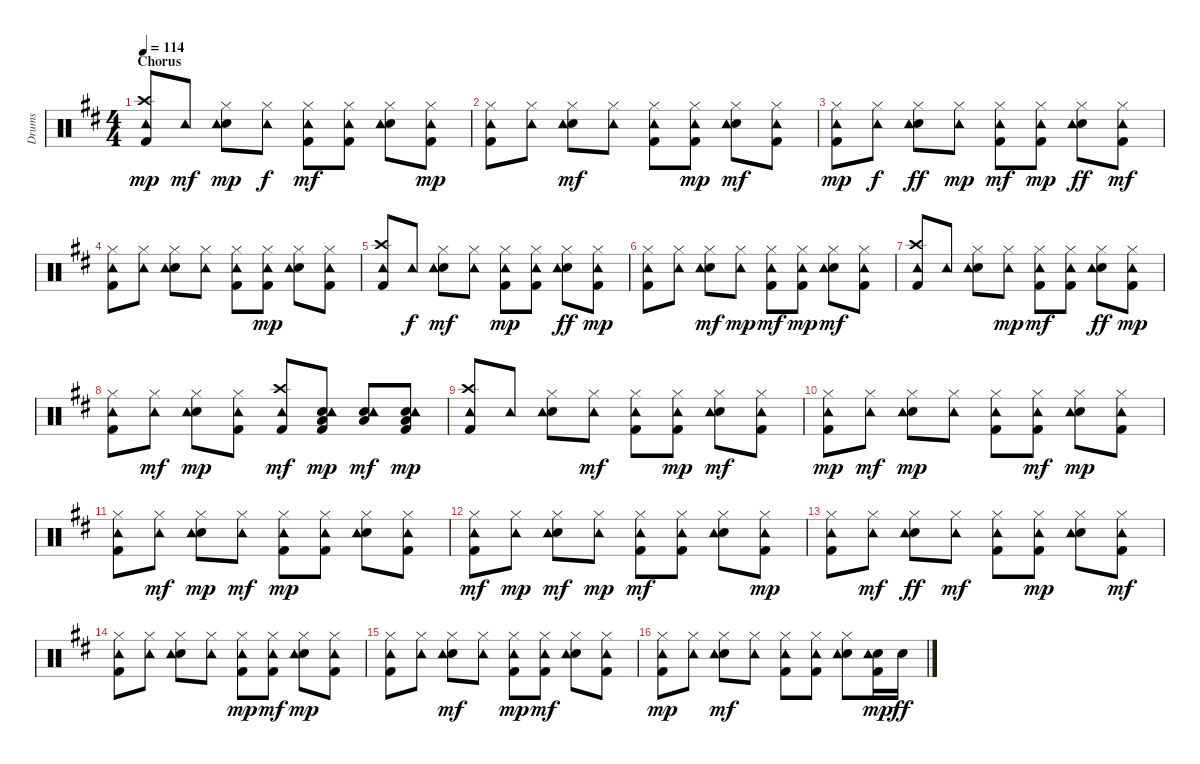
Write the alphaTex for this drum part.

\track ("Drums" "Drums") {instrument percussion}
\staff {score}
\articulation defaults
\ts (4 4)
\section ("" "Chorus")
\tempo 114
\clef neutral
\ks d
("Kick (hit) 2" "Crash high (hit)" "Tambourine (hit)").8{dy mp} "Tambourine (hit)".8{dy mf} ("Snare (hit) 2" "Hi-Hat (closed)" "Tambourine (hit)").8{dy mp} ("Hi-Hat (closed)" "Tambourine (hit)").8{dy f} ("Kick (hit) 2" "Hi-Hat (closed)" "Tambourine (hit)").8{dy mf} ("Kick (hit) 2" "Hi-Hat (closed)" "Tambourine (hit)").8 ("Snare (hit) 2" "Hi-Hat (closed)" "Tambourine (hit)").8 ("Kick (hit) 2" "Hi-Hat (closed)" "Tambourine (hit)").8{dy mp} |
("Kick (hit) 2" "Hi-Hat (closed)" "Tambourine (hit)").8 ("Hi-Hat (closed)" "Tambourine (hit)").8 ("Snare (hit) 2" "Hi-Hat (closed)" "Tambourine (hit)").8{dy mf} ("Hi-Hat (closed)" "Tambourine (hit)").8 ("Kick (hit) 2" "Hi-Hat (closed)" "Tambourine (hit)").8 ("Kick (hit) 2" "Hi-Hat (closed)" "Tambourine (hit)").8{dy mp} ("Snare (hit) 2" "Hi-Hat (closed)" "Tambourine (hit)").8{dy mf} ("Kick (hit) 2" "Hi-Hat (closed)" "Tambourine (hit)").8 |
("Kick (hit) 2" "Hi-Hat (closed)" "Tambourine (hit)").8{dy mp} ("Hi-Hat (closed)" "Tambourine (hit)").8{dy f} ("Snare (hit) 2" "Hi-Hat (closed)" "Tambourine (hit)").8{dy ff} ("Hi-Hat (closed)" "Tambourine (hit)").8{dy mp} ("Kick (hit) 2" "Hi-Hat (closed)" "Tambourine (hit)").8{dy mf} ("Kick (hit) 2" "Hi-Hat (closed)" "Tambourine (hit)").8{dy mp} ("Snare (hit) 2" "Hi-Hat (closed)" "Tambourine (hit)").8{dy ff} ("Kick (hit) 2" "Hi-Hat (closed)" "Tambourine (hit)").8{dy mf} |
("Kick (hit) 2" "Hi-Hat (closed)" "Tambourine (hit)").8 ("Hi-Hat (closed)" "Tambourine (hit)").8 ("Snare (hit) 2" "Hi-Hat (closed)" "Tambourine (hit)").8 ("Hi-Hat (closed)" "Tambourine (hit)").8 ("Kick (hit) 2" "Hi-Hat (closed)" "Tambourine (hit)").8 ("Kick (hit) 2" "Hi-Hat (closed)" "Tambourine (hit)").8{dy mp} ("Snare (hit) 2" "Hi-Hat (closed)" "Tambourine (hit)").8 ("Kick (hit) 2" "Hi-Hat (closed)" "Tambourine (hit)").8 |
("Kick (hit) 2" "Crash high (hit)" "Tambourine (hit)").8 "Tambourine (hit)".8{dy f} ("Snare (hit) 2" "Hi-Hat (closed)" "Tambourine (hit)").8{dy mf} ("Hi-Hat (closed)" "Tambourine (hit)").8 ("Kick (hit) 2" "Hi-Hat (closed)" "Tambourine (hit)").8{dy mp} ("Kick (hit) 2" "Hi-Hat (closed)" "Tambourine (hit)").8 ("Snare (hit) 2" "Hi-Hat (closed)" "Tambourine (hit)").8{dy ff} ("Kick (hit) 2" "Hi-Hat (closed)" "Tambourine (hit)").8{dy mp} |
("Kick (hit) 2" "Hi-Hat (closed)" "Tambourine (hit)").8 ("Hi-Hat (closed)" "Tambourine (hit)").8 ("Snare (hit) 2" "Hi-Hat (closed)" "Tambourine (hit)").8{dy mf} ("Hi-Hat (closed)" "Tambourine (hit)").8{dy mp} ("Kick (hit) 2" "Hi-Hat (closed)" "Tambourine (hit)").8{dy mf} ("Kick (hit) 2" "Hi-Hat (closed)" "Tambourine (hit)").8{dy mp} ("Snare (hit) 2" "Hi-Hat (closed)" "Tambourine (hit)").8{dy mf} ("Kick (hit) 2" "Hi-Hat (closed)" "Tambourine (hit)").8 |
("Kick (hit) 2" "Crash high (hit)" "Tambourine (hit)").8 "Tambourine (hit)".8 ("Snare (hit) 2" "Hi-Hat (closed)" "Tambourine (hit)").8 ("Hi-Hat (closed)" "Tambourine (hit)").8{dy mp} ("Kick (hit) 2" "Hi-Hat (closed)" "Tambourine (hit)").8{dy mf} ("Kick (hit) 2" "Hi-Hat (closed)" "Tambourine (hit)").8 ("Snare (hit) 2" "Hi-Hat (closed)" "Tambourine (hit)").8{dy ff} ("Kick (hit) 2" "Hi-Hat (closed)" "Tambourine (hit)").8{dy mp} |
("Kick (hit) 2" "Hi-Hat (closed)" "Tambourine (hit)").8 ("Hi-Hat (closed)" "Tambourine (hit)").8{dy mf} ("Snare (hit) 2" "Hi-Hat (closed)" "Tambourine (hit)").8{dy mp} ("Kick (hit) 2" "Hi-Hat (closed)" "Tambourine (hit)").8 ("Kick (hit) 2" "Crash high (hit)" "Tambourine (hit)").8{dy mf} ("Kick (hit) 2" "Snare (hit) 2" "Low Floor Tom (hit)" "Tambourine (hit)").8{dy mp} ("Snare (hit) 2" "Low Floor Tom (hit)" "Tambourine (hit)").8{dy mf} ("Kick (hit) 2" "Snare (hit) 2" "Low Floor Tom (hit)" "Tambourine (hit)").8{dy mp} |
("Kick (hit) 2" "Crash high (hit)" "Tambourine (hit)").8 "Tambourine (hit)".8 ("Snare (hit) 2" "Hi-Hat (closed)" "Tambourine (hit)").8 ("Hi-Hat (closed)" "Tambourine (hit)").8{dy mf} ("Kick (hit) 2" "Hi-Hat (closed)" "Tambourine (hit)").8 ("Kick (hit) 2" "Hi-Hat (closed)" "Tambourine (hit)").8{dy mp} ("Snare (hit) 2" "Hi-Hat (closed)" "Tambourine (hit)").8{dy mf} ("Kick (hit) 2" "Hi-Hat (closed)" "Tambourine (hit)").8 |
("Kick (hit) 2" "Hi-Hat (closed)" "Tambourine (hit)").8{dy mp} ("Hi-Hat (closed)" "Tambourine (hit)").8{dy mf} ("Snare (hit) 2" "Hi-Hat (closed)" "Tambourine (hit)").8{dy mp} ("Hi-Hat (closed)" "Tambourine (hit)").8 ("Kick (hit) 2" "Hi-Hat (closed)" "Tambourine (hit)").8 ("Kick (hit) 2" "Hi-Hat (closed)" "Tambourine (hit)").8{dy mf} ("Snare (hit) 2" "Hi-Hat (closed)" "Tambourine (hit)").8{dy mp} ("Kick (hit) 2" "Hi-Hat (closed)" "Tambourine (hit)").8 |
("Kick (hit) 2" "Hi-Hat (closed)" "Tambourine (hit)").8 ("Hi-Hat (closed)" "Tambourine (hit)").8{dy mf} ("Snare (hit) 2" "Hi-Hat (closed)" "Tambourine (hit)").8{dy mp} ("Hi-Hat (closed)" "Tambourine (hit)").8{dy mf} ("Kick (hit) 2" "Hi-Hat (closed)" "Tambourine (hit)").8{dy mp} ("Kick (hit) 2" "Hi-Hat (closed)" "Tambourine (hit)").8 ("Snare (hit) 2" "Hi-Hat (closed)" "Tambourine (hit)").8 ("Kick (hit) 2" "Hi-Hat (closed)" "Tambourine (hit)").8 |
("Kick (hit) 2" "Hi-Hat (closed)" "Tambourine (hit)").8{dy mf} ("Hi-Hat (closed)" "Tambourine (hit)").8{dy mp} ("Snare (hit) 2" "Hi-Hat (closed)" "Tambourine (hit)").8{dy mf} ("Hi-Hat (closed)" "Tambourine (hit)").8{dy mp} ("Kick (hit) 2" "Hi-Hat (closed)" "Tambourine (hit)").8{dy mf} ("Kick (hit) 2" "Hi-Hat (closed)" "Tambourine (hit)").8 ("Snare (hit) 2" "Hi-Hat (closed)" "Tambourine (hit)").8 ("Kick (hit) 2" "Hi-Hat (closed)" "Tambourine (hit)").8{dy mp} |
("Kick (hit) 2" "Hi-Hat (closed)" "Tambourine (hit)").8 ("Hi-Hat (closed)" "Tambourine (hit)").8{dy mf} ("Snare (hit) 2" "Hi-Hat (closed)" "Tambourine (hit)").8{dy ff} ("Hi-Hat (closed)" "Tambourine (hit)").8{dy mf} ("Kick (hit) 2" "Hi-Hat (closed)" "Tambourine (hit)").8 ("Kick (hit) 2" "Hi-Hat (closed)" "Tambourine (hit)").8{dy mp} ("Snare (hit) 2" "Hi-Hat (closed)" "Tambourine (hit)").8 ("Kick (hit) 2" "Hi-Hat (closed)" "Tambourine (hit)").8{dy mf} |
("Kick (hit) 2" "Hi-Hat (closed)" "Tambourine (hit)").8 ("Hi-Hat (closed)" "Tambourine (hit)").8 ("Snare (hit) 2" "Hi-Hat (closed)" "Tambourine (hit)").8 ("Hi-Hat (closed)" "Tambourine (hit)").8 ("Kick (hit) 2" "Hi-Hat (closed)" "Tambourine (hit)").8{dy mp} ("Kick (hit) 2" "Hi-Hat (closed)" "Tambourine (hit)").8{dy mf} ("Snare (hit) 2" "Hi-Hat (closed)" "Tambourine (hit)").8{dy mp} ("Kick (hit) 2" "Hi-Hat (closed)" "Tambourine (hit)").8 |
("Kick (hit) 2" "Hi-Hat (closed)" "Tambourine (hit)").8 ("Hi-Hat (closed)" "Tambourine (hit)").8 ("Snare (hit) 2" "Hi-Hat (closed)" "Tambourine (hit)").8{dy mf} ("Hi-Hat (closed)" "Tambourine (hit)").8 ("Kick (hit) 2" "Hi-Hat (closed)" "Tambourine (hit)").8{dy mp} ("Kick (hit) 2" "Hi-Hat (closed)" "Tambourine (hit)").8{dy mf} ("Snare (hit) 2" "Hi-Hat (closed)" "Tambourine (hit)").8 ("Kick (hit) 2" "Hi-Hat (closed)" "Tambourine (hit)").8 |
("Kick (hit) 2" "Hi-Hat (closed)" "Tambourine (hit)").8{dy mp} ("Hi-Hat (closed)" "Tambourine (hit)").8 ("Snare (hit) 2" "Hi-Hat (closed)" "Tambourine (hit)").8{dy mf} ("Hi-Hat (closed)" "Tambourine (hit)").8 ("Kick (hit) 2" "Hi-Hat (closed)" "Tambourine (hit)").8 ("Kick (hit) 2" "Hi-Hat (closed)" "Tambourine (hit)").8 ("Snare (hit) 2" "Hi-Hat (closed)" "Tambourine (hit)").8 ("Kick (hit) 2" "Snare (hit) 2" "Tambourine (hit)").16{dy mp} "Snare (hit) 2".16{dy ff}
